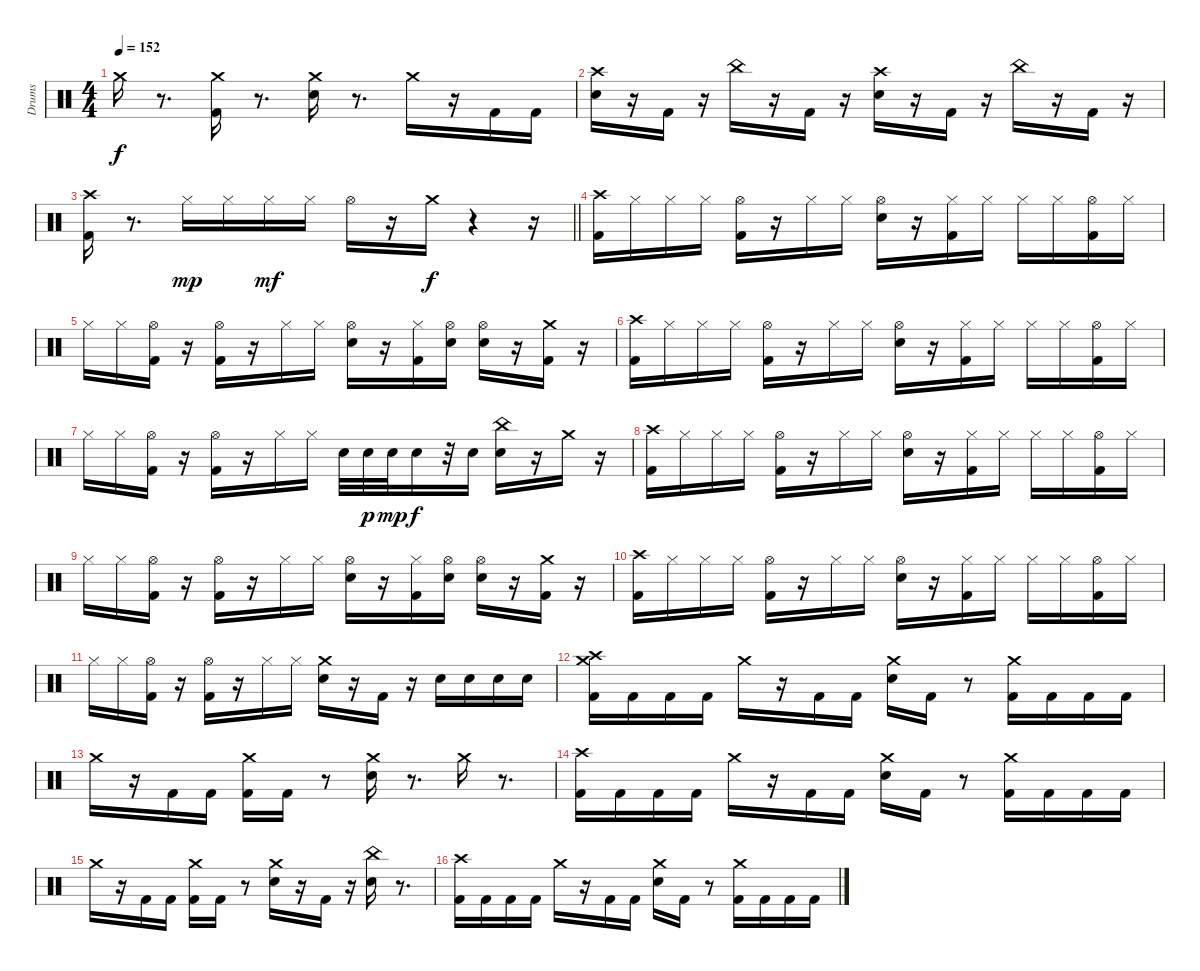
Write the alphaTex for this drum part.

\track ("Drums" "Drums") {instrument percussion}
\staff {score}
\articulation defaults
\ts (4 4)
\tempo 152
\clef neutral
\ks c "Crash medium (hit)".16{dy f}
r.8{d} ("Kick (hit) 2" "Crash medium (hit)").16 r.8{d} ("Snare (hit) 2" "Crash medium (hit)").16 r.8{d} "Crash medium (hit)".16 r.16 "Kick (hit) 2".16 "Kick (hit) 2".16 |
("Snare (hit) 2" "Crash high (hit)").16 r.16 "Kick (hit) 2".16 r.16 "China (hit)".16 r.16 "Kick (hit) 2".16 r.16 ("Snare (hit) 2" "Crash high (hit)").16 r.16 "Kick (hit) 2".16 r.16 "China (hit)".16 r.16 "Kick (hit) 2".16 r.16 |
\barLineRight lightlight
("Kick (hit) 2" "Crash high (hit)").16 r.8{d} "Hi-Hat (closed)".16{dy mp} "Hi-Hat (closed)".16 "Hi-Hat (closed)".16{dy mf} "Hi-Hat (closed)".16 "Hi-Hat (open)".16 r.16 "Crash medium (hit)".16{dy f} r.4 r.16 |
\section ("" " ")
("Kick (hit) 2" "Crash high (hit)").16 "Hi-Hat (closed)".16 "Hi-Hat (closed)".16 "Hi-Hat (closed)".16 ("Kick (hit) 2" "Hi-Hat (open)").16 r.16 "Hi-Hat (closed)".16 "Hi-Hat (closed)".16 ("Snare (hit) 2" "Hi-Hat (open)").16 r.16 ("Kick (hit) 2" "Hi-Hat (closed)").16 "Hi-Hat (closed)".16 "Hi-Hat (closed)".16 "Hi-Hat (closed)".16 ("Kick (hit) 2" "Hi-Hat (open)").16 "Hi-Hat (closed)".16 |
"Hi-Hat (closed)".16 "Hi-Hat (closed)".16 ("Kick (hit) 2" "Hi-Hat (open)").16 r.16 ("Kick (hit) 2" "Hi-Hat (open)").16 r.16 "Hi-Hat (closed)".16 "Hi-Hat (closed)".16 ("Snare (hit) 2" "Hi-Hat (open)").16 r.16 ("Kick (hit) 2" "Hi-Hat (closed)").16 ("Snare (hit) 2" "Hi-Hat (open)").16 ("Snare (hit) 2" "Hi-Hat (open)").16 r.16 ("Kick (hit) 2" "Crash medium (hit)").16 r.16 |
("Kick (hit) 2" "Crash high (hit)").16 "Hi-Hat (closed)".16 "Hi-Hat (closed)".16 "Hi-Hat (closed)".16 ("Kick (hit) 2" "Hi-Hat (open)").16 r.16 "Hi-Hat (closed)".16 "Hi-Hat (closed)".16 ("Snare (hit) 2" "Hi-Hat (open)").16 r.16 ("Kick (hit) 2" "Hi-Hat (closed)").16 "Hi-Hat (closed)".16 "Hi-Hat (closed)".16 "Hi-Hat (closed)".16 ("Kick (hit) 2" "Hi-Hat (open)").16 "Hi-Hat (closed)".16 |
"Hi-Hat (closed)".16 "Hi-Hat (closed)".16 ("Kick (hit) 2" "Hi-Hat (open)").16 r.16 ("Kick (hit) 2" "Hi-Hat (open)").16 r.16 "Hi-Hat (closed)".16 "Hi-Hat (closed)".16 "Snare (hit) 2".32 "Snare (hit) 2".32{dy p} "Snare (hit) 2".32{dy mp} "Snare (hit) 2".16{dy f} r.32 "Snare (hit) 2".16 ("Snare (hit) 2" "China (hit)").16 r.16 "Crash medium (hit)".16 r.16 |
("Kick (hit) 2" "Crash high (hit)").16 "Hi-Hat (closed)".16 "Hi-Hat (closed)".16 "Hi-Hat (closed)".16 ("Kick (hit) 2" "Hi-Hat (open)").16 r.16 "Hi-Hat (closed)".16 "Hi-Hat (closed)".16 ("Snare (hit) 2" "Hi-Hat (open)").16 r.16 ("Kick (hit) 2" "Hi-Hat (closed)").16 "Hi-Hat (closed)".16 "Hi-Hat (closed)".16 "Hi-Hat (closed)".16 ("Kick (hit) 2" "Hi-Hat (open)").16 "Hi-Hat (closed)".16 |
"Hi-Hat (closed)".16 "Hi-Hat (closed)".16 ("Kick (hit) 2" "Hi-Hat (open)").16 r.16 ("Kick (hit) 2" "Hi-Hat (open)").16 r.16 "Hi-Hat (closed)".16 "Hi-Hat (closed)".16 ("Snare (hit) 2" "Hi-Hat (open)").16 r.16 ("Kick (hit) 2" "Hi-Hat (closed)").16 ("Snare (hit) 2" "Hi-Hat (open)").16 ("Snare (hit) 2" "Hi-Hat (open)").16 r.16 ("Kick (hit) 2" "Crash medium (hit)").16 r.16 |
("Kick (hit) 2" "Crash high (hit)").16 "Hi-Hat (closed)".16 "Hi-Hat (closed)".16 "Hi-Hat (closed)".16 ("Kick (hit) 2" "Hi-Hat (open)").16 r.16 "Hi-Hat (closed)".16 "Hi-Hat (closed)".16 ("Snare (hit) 2" "Hi-Hat (open)").16 r.16 ("Kick (hit) 2" "Hi-Hat (closed)").16 "Hi-Hat (closed)".16 "Hi-Hat (closed)".16 "Hi-Hat (closed)".16 ("Kick (hit) 2" "Hi-Hat (open)").16 "Hi-Hat (closed)".16 |
"Hi-Hat (closed)".16 "Hi-Hat (closed)".16 ("Kick (hit) 2" "Hi-Hat (open)").16 r.16 ("Kick (hit) 2" "Hi-Hat (open)").16 r.16 "Hi-Hat (closed)".16 "Hi-Hat (closed)".16 ("Snare (hit) 2" "Crash medium (hit)").16 r.16 "Kick (hit) 2".16 r.16 "Snare (hit) 2".16 "Snare (hit) 2".16 "Snare (hit) 2".16 "Snare (hit) 2".16 |
("Kick (hit) 2" "Crash medium (hit)" "Crash high (hit)").16 "Kick (hit) 2".16 "Kick (hit) 2".16 "Kick (hit) 2".16 "Crash medium (hit)".16 r.16 "Kick (hit) 2".16 "Kick (hit) 2".16 ("Snare (hit) 2" "Crash medium (hit)").16 "Kick (hit) 2".16 r.8 ("Kick (hit) 2" "Crash medium (hit)").16 "Kick (hit) 2".16 "Kick (hit) 2".16 "Kick (hit) 2".16 |
"Crash medium (hit)".16 r.16 "Kick (hit) 2".16 "Kick (hit) 2".16 ("Kick (hit) 2" "Crash medium (hit)").16 "Kick (hit) 2".16 r.8 ("Snare (hit) 2" "Crash medium (hit)").16 r.8{d} "Crash medium (hit)".16 r.8{d} |
("Kick (hit) 2" "Crash high (hit)").16 "Kick (hit) 2".16 "Kick (hit) 2".16 "Kick (hit) 2".16 "Crash medium (hit)".16 r.16 "Kick (hit) 2".16 "Kick (hit) 2".16 ("Snare (hit) 2" "Crash medium (hit)").16 "Kick (hit) 2".16 r.8 ("Kick (hit) 2" "Crash medium (hit)").16 "Kick (hit) 2".16 "Kick (hit) 2".16 "Kick (hit) 2".16 |
"Crash medium (hit)".16 r.16 "Kick (hit) 2".16 "Kick (hit) 2".16 ("Kick (hit) 2" "Crash medium (hit)").16 "Kick (hit) 2".16 r.8 ("Snare (hit) 2" "Crash medium (hit)").16 r.16 "Kick (hit) 2".16 r.16 ("Snare (hit) 2" "China (hit)").16 r.8{d} |
("Kick (hit) 2" "Crash high (hit)").16 "Kick (hit) 2".16 "Kick (hit) 2".16 "Kick (hit) 2".16 "Crash medium (hit)".16 r.16 "Kick (hit) 2".16 "Kick (hit) 2".16 ("Snare (hit) 2" "Crash medium (hit)").16 "Kick (hit) 2".16 r.8 ("Kick (hit) 2" "Crash medium (hit)").16 "Kick (hit) 2".16 "Kick (hit) 2".16 "Kick (hit) 2".16
